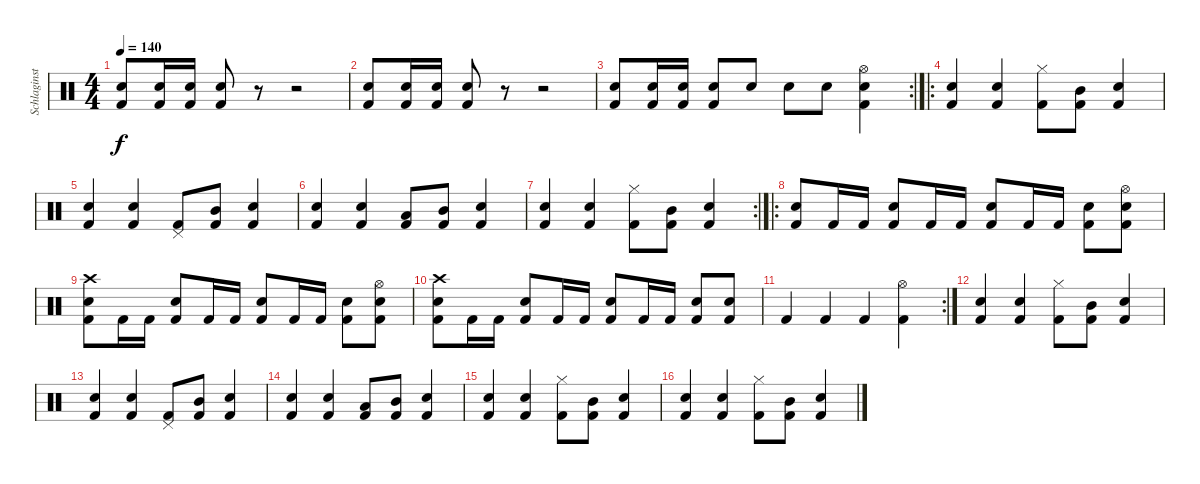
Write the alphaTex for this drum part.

\track ("Schlaginstrumente - Auswahl" "Schlaginst") {instrument percussion}
\staff {score}
\articulation defaults
\ts (4 4)
\tempo 140
\clef neutral
\ks c
("Snare (hit) 2" "Kick (hit) 2").8{dy f} ("Snare (hit) 2" "Kick (hit) 2").16 ("Snare (hit) 2" "Kick (hit) 2").16 ("Snare (hit) 2" "Kick (hit) 2").8 r.8 r.2 |
("Snare (hit) 2" "Kick (hit) 2").8 ("Snare (hit) 2" "Kick (hit) 2").16 ("Snare (hit) 2" "Kick (hit) 2").16 ("Snare (hit) 2" "Kick (hit) 2").8 r.8 r.2 |
\rc 2
("Snare (hit) 2" "Kick (hit) 2").8 ("Snare (hit) 2" "Kick (hit) 2").16 ("Snare (hit) 2" "Kick (hit) 2").16 ("Snare (hit) 2" "Kick (hit) 2").8 "Snare (hit) 2".8 "Snare (hit) 2".8 "Snare (hit) 2".8 ("Kick (hit) 2" "Snare (hit) 2" "Hi-Hat (open)").4 |
\ro
("Kick (hit) 2" "Snare (hit) 2").4 ("Kick (hit) 2" "Snare (hit) 2").4 ("Kick (hit) 2" "Hi-Hat (closed)").8 ("Kick (hit) 2" "Mid Tom (hit)").8 ("Kick (hit) 2" "Snare (hit) 2").4 |
("Kick (hit) 2" "Snare (hit) 2").4 ("Kick (hit) 2" "Snare (hit) 2").4 ("Kick (hit) 2" "Pedal Hi-Hat (hit)").8 ("Kick (hit) 2" "Mid Tom (hit)").8 ("Kick (hit) 2" "Snare (hit) 2").4 |
("Kick (hit) 2" "Snare (hit) 2").4 ("Kick (hit) 2" "Snare (hit) 2").4 ("Kick (hit) 2" "Low Tom (hit)").8 ("Kick (hit) 2" "Mid Tom (hit)").8 ("Kick (hit) 2" "Snare (hit) 2").4 |
\rc 2
("Kick (hit) 2" "Snare (hit) 2").4 ("Kick (hit) 2" "Snare (hit) 2").4 ("Kick (hit) 2" "Hi-Hat (closed)").8 ("Kick (hit) 2" "Mid Tom (hit)").8 ("Kick (hit) 2" "Snare (hit) 2").4 |
\ro
("Kick (hit) 2" "Snare (hit) 2").8 "Kick (hit) 2".16 "Kick (hit) 2".16 ("Kick (hit) 2" "Snare (hit) 2").8 "Kick (hit) 2".16 "Kick (hit) 2".16 ("Kick (hit) 2" "Snare (hit) 2").8 "Kick (hit) 2".16 "Kick (hit) 2".16 ("Kick (hit) 2" "Snare (hit) 2").8 ("Kick (hit) 2" "Snare (hit) 2" "Hi-Hat (open)").8 |
("Kick (hit) 2" "Snare (hit) 2" "Crash high (hit)").8 "Kick (hit) 2".16 "Kick (hit) 2".16 ("Kick (hit) 2" "Snare (hit) 2").8 "Kick (hit) 2".16 "Kick (hit) 2".16 ("Kick (hit) 2" "Snare (hit) 2").8 "Kick (hit) 2".16 "Kick (hit) 2".16 ("Kick (hit) 2" "Snare (hit) 2").8 ("Kick (hit) 2" "Snare (hit) 2" "Hi-Hat (open)").8 |
("Kick (hit) 2" "Snare (hit) 2" "Crash high (hit)").8 "Kick (hit) 2".16 "Kick (hit) 2".16 ("Kick (hit) 2" "Snare (hit) 2").8 "Kick (hit) 2".16 "Kick (hit) 2".16 ("Kick (hit) 2" "Snare (hit) 2").8 "Kick (hit) 2".16 "Kick (hit) 2".16 ("Kick (hit) 2" "Snare (hit) 2").8 ("Kick (hit) 2" "Snare (hit) 2").8 |
\rc 2 "Kick (hit) 2".4 "Kick (hit) 2".4 "Kick (hit) 2".4
("Kick (hit) 2" "Hi-Hat (open)").4 |
("Kick (hit) 2" "Snare (hit) 2").4 ("Kick (hit) 2" "Snare (hit) 2").4 ("Kick (hit) 2" "Hi-Hat (closed)").8 ("Kick (hit) 2" "Mid Tom (hit)").8 ("Kick (hit) 2" "Snare (hit) 2").4 |
("Kick (hit) 2" "Snare (hit) 2").4 ("Kick (hit) 2" "Snare (hit) 2").4 ("Kick (hit) 2" "Pedal Hi-Hat (hit)").8 ("Kick (hit) 2" "Mid Tom (hit)").8 ("Kick (hit) 2" "Snare (hit) 2").4 |
("Kick (hit) 2" "Snare (hit) 2").4 ("Kick (hit) 2" "Snare (hit) 2").4 ("Kick (hit) 2" "Low Tom (hit)").8 ("Kick (hit) 2" "Mid Tom (hit)").8 ("Kick (hit) 2" "Snare (hit) 2").4 |
("Kick (hit) 2" "Snare (hit) 2").4 ("Kick (hit) 2" "Snare (hit) 2").4 ("Kick (hit) 2" "Hi-Hat (closed)").8 ("Kick (hit) 2" "Mid Tom (hit)").8 ("Kick (hit) 2" "Snare (hit) 2").4 |
("Kick (hit) 2" "Snare (hit) 2").4 ("Kick (hit) 2" "Snare (hit) 2").4 ("Kick (hit) 2" "Hi-Hat (closed)").8 ("Kick (hit) 2" "Mid Tom (hit)").8 ("Kick (hit) 2" "Snare (hit) 2").4
